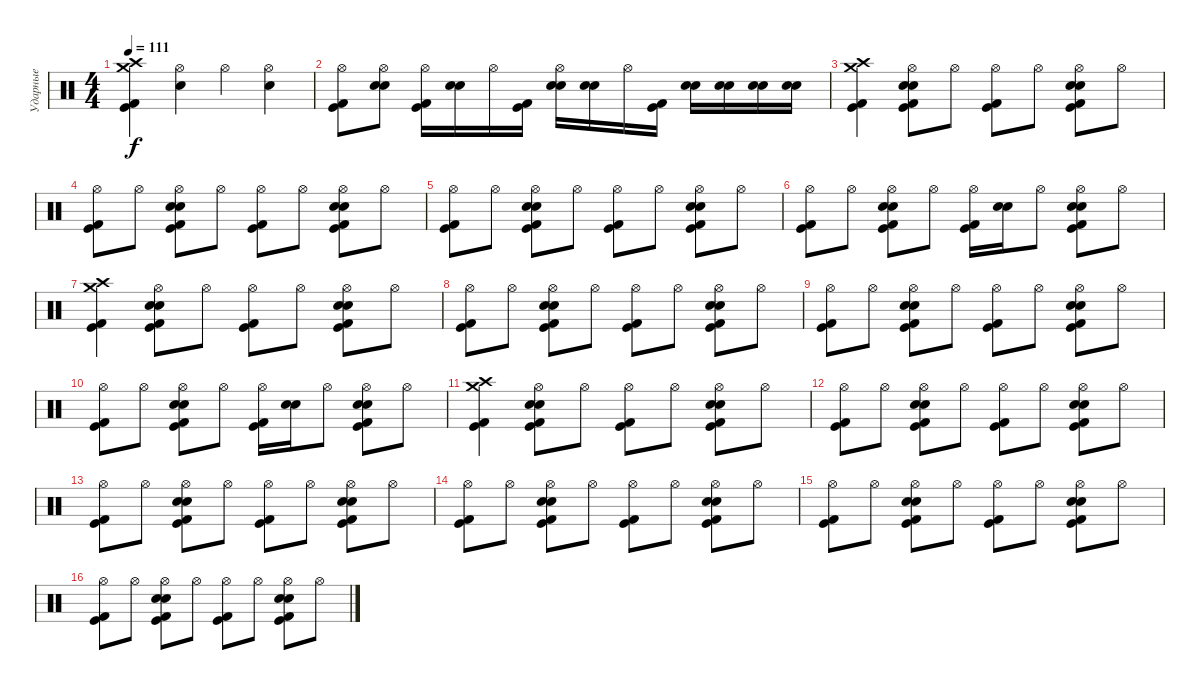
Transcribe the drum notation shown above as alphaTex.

\track ("Ударные" "Ударные") {instrument percussion}
\staff {score}
\articulation defaults
\ts (4 4)
\tempo 111
\clef neutral
\ks c
("Crash high (hit)" "Kick (hit)" "Kick (hit) 2" "Crash medium (hit)").4{dy f} ("Hi-Hat (open)" "Electric Snare (hit)").4 "Hi-Hat (open)".4 ("Hi-Hat (open)" "Electric Snare (hit)").4 |
("Hi-Hat (open)" "Kick (hit)" "Kick (hit) 2").8 ("Hi-Hat (open)" "Snare (hit) 2" "Electric Snare (hit)").8 ("Hi-Hat (open)" "Kick (hit)" "Kick (hit) 2").16 ("Snare (hit) 2" "Electric Snare (hit)").16 "Hi-Hat (open)".16 ("Kick (hit)" "Kick (hit) 2").16 ("Hi-Hat (open)" "Snare (hit) 2" "Electric Snare (hit)").16 ("Snare (hit) 2" "Electric Snare (hit)").16 "Hi-Hat (open)".16 ("Kick (hit)" "Kick (hit) 2").16 ("Snare (hit) 2" "Electric Snare (hit)").16 ("Snare (hit) 2" "Electric Snare (hit)").16 ("Snare (hit) 2" "Electric Snare (hit)").16 ("Snare (hit) 2" "Electric Snare (hit)").16 |
("Crash high (hit)" "Kick (hit)" "Kick (hit) 2" "Crash medium (hit)").4 ("Hi-Hat (open)" "Kick (hit)" "Kick (hit) 2" "Snare (hit) 2" "Electric Snare (hit)").8 "Hi-Hat (open)".8 ("Hi-Hat (open)" "Kick (hit)" "Kick (hit) 2").8 "Hi-Hat (open)".8 ("Hi-Hat (open)" "Kick (hit)" "Kick (hit) 2" "Snare (hit) 2" "Electric Snare (hit)").8 "Hi-Hat (open)".8 |
("Hi-Hat (open)" "Kick (hit)" "Kick (hit) 2").8 "Hi-Hat (open)".8 ("Hi-Hat (open)" "Kick (hit)" "Kick (hit) 2" "Snare (hit) 2" "Electric Snare (hit)").8 "Hi-Hat (open)".8 ("Hi-Hat (open)" "Kick (hit)" "Kick (hit) 2").8 "Hi-Hat (open)".8 ("Hi-Hat (open)" "Kick (hit)" "Kick (hit) 2" "Snare (hit) 2" "Electric Snare (hit)").8 "Hi-Hat (open)".8 |
("Hi-Hat (open)" "Kick (hit)" "Kick (hit) 2").8 "Hi-Hat (open)".8 ("Hi-Hat (open)" "Kick (hit)" "Kick (hit) 2" "Snare (hit) 2" "Electric Snare (hit)").8 "Hi-Hat (open)".8 ("Hi-Hat (open)" "Kick (hit)" "Kick (hit) 2").8 "Hi-Hat (open)".8 ("Hi-Hat (open)" "Kick (hit)" "Kick (hit) 2" "Snare (hit) 2" "Electric Snare (hit)").8 "Hi-Hat (open)".8 |
("Hi-Hat (open)" "Kick (hit)" "Kick (hit) 2").8 "Hi-Hat (open)".8 ("Hi-Hat (open)" "Kick (hit)" "Kick (hit) 2" "Snare (hit) 2" "Electric Snare (hit)").8 "Hi-Hat (open)".8 ("Hi-Hat (open)" "Kick (hit)" "Kick (hit) 2").16 ("Snare (hit) 2" "Electric Snare (hit)").16 "Hi-Hat (open)".8 ("Hi-Hat (open)" "Kick (hit)" "Kick (hit) 2" "Snare (hit) 2" "Electric Snare (hit)").8 "Hi-Hat (open)".8 |
("Crash high (hit)" "Kick (hit)" "Kick (hit) 2" "Crash medium (hit)").4 ("Hi-Hat (open)" "Kick (hit)" "Kick (hit) 2" "Snare (hit) 2" "Electric Snare (hit)").8 "Hi-Hat (open)".8 ("Hi-Hat (open)" "Kick (hit)" "Kick (hit) 2").8 "Hi-Hat (open)".8 ("Hi-Hat (open)" "Kick (hit)" "Kick (hit) 2" "Snare (hit) 2" "Electric Snare (hit)").8 "Hi-Hat (open)".8 |
("Hi-Hat (open)" "Kick (hit)" "Kick (hit) 2").8 "Hi-Hat (open)".8 ("Hi-Hat (open)" "Kick (hit)" "Kick (hit) 2" "Snare (hit) 2" "Electric Snare (hit)").8 "Hi-Hat (open)".8 ("Hi-Hat (open)" "Kick (hit)" "Kick (hit) 2").8 "Hi-Hat (open)".8 ("Hi-Hat (open)" "Kick (hit)" "Kick (hit) 2" "Snare (hit) 2" "Electric Snare (hit)").8 "Hi-Hat (open)".8 |
("Hi-Hat (open)" "Kick (hit)" "Kick (hit) 2").8 "Hi-Hat (open)".8 ("Hi-Hat (open)" "Kick (hit)" "Kick (hit) 2" "Snare (hit) 2" "Electric Snare (hit)").8 "Hi-Hat (open)".8 ("Hi-Hat (open)" "Kick (hit)" "Kick (hit) 2").8 "Hi-Hat (open)".8 ("Hi-Hat (open)" "Kick (hit)" "Kick (hit) 2" "Snare (hit) 2" "Electric Snare (hit)").8 "Hi-Hat (open)".8 |
("Hi-Hat (open)" "Kick (hit)" "Kick (hit) 2").8 "Hi-Hat (open)".8 ("Hi-Hat (open)" "Kick (hit)" "Kick (hit) 2" "Snare (hit) 2" "Electric Snare (hit)").8 "Hi-Hat (open)".8 ("Hi-Hat (open)" "Kick (hit)" "Kick (hit) 2").16 ("Snare (hit) 2" "Electric Snare (hit)").16 "Hi-Hat (open)".8 ("Hi-Hat (open)" "Kick (hit)" "Kick (hit) 2" "Snare (hit) 2" "Electric Snare (hit)").8 "Hi-Hat (open)".8 |
("Crash high (hit)" "Kick (hit)" "Kick (hit) 2" "Crash medium (hit)").4 ("Hi-Hat (open)" "Kick (hit)" "Kick (hit) 2" "Snare (hit) 2" "Electric Snare (hit)").8 "Hi-Hat (open)".8 ("Hi-Hat (open)" "Kick (hit)" "Kick (hit) 2").8 "Hi-Hat (open)".8 ("Hi-Hat (open)" "Kick (hit)" "Kick (hit) 2" "Snare (hit) 2" "Electric Snare (hit)").8 "Hi-Hat (open)".8 |
("Hi-Hat (open)" "Kick (hit)" "Kick (hit) 2").8 "Hi-Hat (open)".8 ("Hi-Hat (open)" "Kick (hit)" "Kick (hit) 2" "Snare (hit) 2" "Electric Snare (hit)").8 "Hi-Hat (open)".8 ("Hi-Hat (open)" "Kick (hit)" "Kick (hit) 2").8 "Hi-Hat (open)".8 ("Hi-Hat (open)" "Kick (hit)" "Kick (hit) 2" "Snare (hit) 2" "Electric Snare (hit)").8 "Hi-Hat (open)".8 |
("Hi-Hat (open)" "Kick (hit)" "Kick (hit) 2").8 "Hi-Hat (open)".8 ("Hi-Hat (open)" "Kick (hit)" "Kick (hit) 2" "Snare (hit) 2" "Electric Snare (hit)").8 "Hi-Hat (open)".8 ("Hi-Hat (open)" "Kick (hit)" "Kick (hit) 2").8 "Hi-Hat (open)".8 ("Hi-Hat (open)" "Kick (hit)" "Kick (hit) 2" "Snare (hit) 2" "Electric Snare (hit)").8 "Hi-Hat (open)".8 |
("Hi-Hat (open)" "Kick (hit)" "Kick (hit) 2").8 "Hi-Hat (open)".8 ("Hi-Hat (open)" "Kick (hit)" "Kick (hit) 2" "Snare (hit) 2" "Electric Snare (hit)").8 "Hi-Hat (open)".8 ("Hi-Hat (open)" "Kick (hit)" "Kick (hit) 2").8 "Hi-Hat (open)".8 ("Hi-Hat (open)" "Kick (hit)" "Kick (hit) 2" "Snare (hit) 2" "Electric Snare (hit)").8 "Hi-Hat (open)".8 |
("Hi-Hat (open)" "Kick (hit)" "Kick (hit) 2").8 "Hi-Hat (open)".8 ("Hi-Hat (open)" "Kick (hit)" "Kick (hit) 2" "Snare (hit) 2" "Electric Snare (hit)").8 "Hi-Hat (open)".8 ("Hi-Hat (open)" "Kick (hit)" "Kick (hit) 2").8 "Hi-Hat (open)".8 ("Hi-Hat (open)" "Kick (hit)" "Kick (hit) 2" "Snare (hit) 2" "Electric Snare (hit)").8 "Hi-Hat (open)".8 |
("Hi-Hat (open)" "Kick (hit)" "Kick (hit) 2").8 "Hi-Hat (open)".8 ("Hi-Hat (open)" "Kick (hit)" "Kick (hit) 2" "Snare (hit) 2" "Electric Snare (hit)").8 "Hi-Hat (open)".8 ("Hi-Hat (open)" "Kick (hit)" "Kick (hit) 2").8 "Hi-Hat (open)".8 ("Hi-Hat (open)" "Kick (hit)" "Kick (hit) 2" "Snare (hit) 2" "Electric Snare (hit)").8 "Hi-Hat (open)".8
